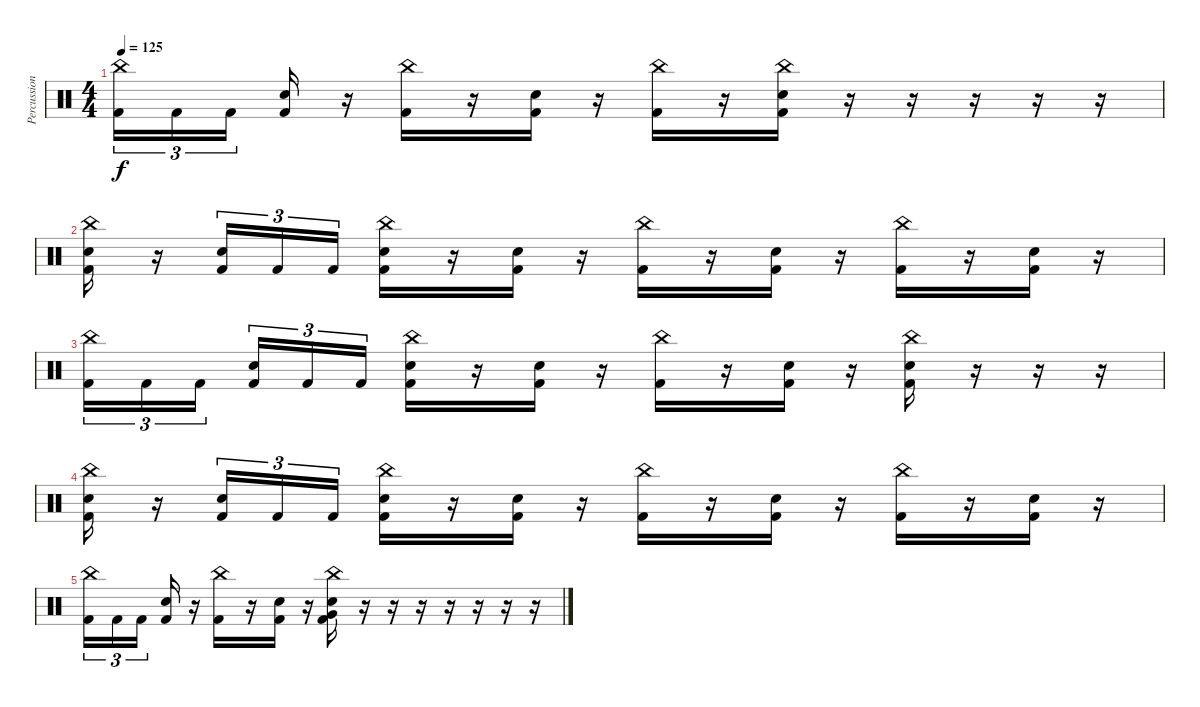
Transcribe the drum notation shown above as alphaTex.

\track ("Percussion" "Percussion") {instrument percussion}
\staff {score}
\articulation defaults
\ts (4 4)
\tempo 125
\clef neutral
\ks c
("China (hit)" "Kick (hit) 2").16{tu (3 2) dy f} "Kick (hit) 2".16{tu (3 2)} "Kick (hit) 2".16{tu (3 2) beam splitsecondary} ("Electric Snare (hit)" "Kick (hit) 2").16 r.16 ("China (hit)" "Kick (hit) 2").16 r.16 ("Electric Snare (hit)" "Kick (hit) 2").16 r.16 ("China (hit)" "Kick (hit) 2").16 r.16 ("China (hit)" "Electric Snare (hit)" "Kick (hit) 2").16 r.16 r.16 r.16 r.16 r.16 |
("China (hit)" "Electric Snare (hit)" "Kick (hit) 2").16 r.16 ("Electric Snare (hit)" "Kick (hit) 2").16{tu (3 2)} "Kick (hit) 2".16{tu (3 2)} "Kick (hit) 2".16{tu (3 2)} ("China (hit)" "Electric Snare (hit)" "Kick (hit) 2").16 r.16 ("Electric Snare (hit)" "Kick (hit) 2").16 r.16 ("China (hit)" "Kick (hit) 2").16 r.16 ("Electric Snare (hit)" "Kick (hit) 2").16 r.16 ("China (hit)" "Kick (hit) 2").16 r.16 ("Electric Snare (hit)" "Kick (hit) 2").16 r.16 |
("China (hit)" "Kick (hit) 2").16{tu (3 2)} "Kick (hit) 2".16{tu (3 2)} "Kick (hit) 2".16{tu (3 2) beam splitsecondary} ("Electric Snare (hit)" "Kick (hit) 2").16{tu (3 2)} "Kick (hit) 2".16{tu (3 2)} "Kick (hit) 2".16{tu (3 2)} ("China (hit)" "Electric Snare (hit)" "Kick (hit) 2").16 r.16 ("Electric Snare (hit)" "Kick (hit) 2").16 r.16 ("China (hit)" "Kick (hit) 2").16 r.16 ("Electric Snare (hit)" "Kick (hit) 2").16 r.16 ("China (hit)" "Electric Snare (hit)" "Kick (hit) 2").16 r.16 r.16 r.16 |
("China (hit)" "Electric Snare (hit)" "Kick (hit) 2").16 r.16 ("Electric Snare (hit)" "Kick (hit) 2").16{tu (3 2)} "Kick (hit) 2".16{tu (3 2)} "Kick (hit) 2".16{tu (3 2)} ("China (hit)" "Electric Snare (hit)" "Kick (hit) 2").16 r.16 ("Electric Snare (hit)" "Kick (hit) 2").16 r.16 ("China (hit)" "Kick (hit) 2").16 r.16 ("Electric Snare (hit)" "Kick (hit) 2").16 r.16 ("China (hit)" "Kick (hit) 2").16 r.16 ("Electric Snare (hit)" "Kick (hit) 2").16 r.16 |
("China (hit)" "Kick (hit) 2").16{tu (3 2)} "Kick (hit) 2".16{tu (3 2)} "Kick (hit) 2".16{tu (3 2) beam splitsecondary} ("Electric Snare (hit)" "Kick (hit) 2").16 r.16 ("China (hit)" "Kick (hit) 2").16 r.16 ("Electric Snare (hit)" "Kick (hit) 2").16 r.16 ("China (hit)" "Electric Snare (hit)" "Very Low Tom (hit)" "Kick (hit) 2").16 r.16 r.16 r.16 r.16 r.16 r.16 r.16
